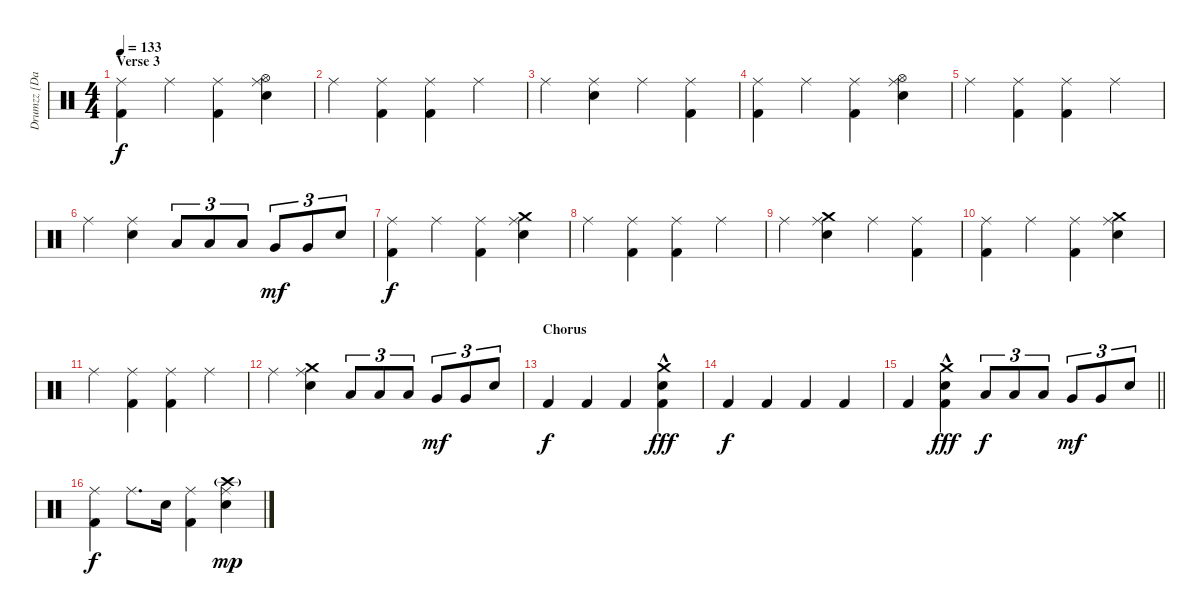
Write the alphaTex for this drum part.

\track ("Drumzz [Dave Grohl]" "Drumzz [Da") {instrument percussion}
\staff {score}
\articulation defaults
\ts (4 4)
\section ("" "Verse 3")
\tempo 133
\clef neutral
\ks c
("Ride (middle)" "Kick (hit) 2").4{dy f} "Ride (middle)".4 ("Ride (middle)" "Kick (hit) 2").4 ("Ride (middle)" "Hi-Hat (open)" "Snare (hit) 2").4 |
"Ride (middle)".4 ("Ride (middle)" "Kick (hit) 2").4 ("Ride (middle)" "Kick (hit) 2").4 "Ride (middle)".4 |
"Ride (middle)".4 ("Ride (middle)" "Snare (hit) 2").4 "Ride (middle)".4 ("Ride (middle)" "Kick (hit) 2").4 |
("Ride (middle)" "Kick (hit) 2").4 "Ride (middle)".4 ("Ride (middle)" "Kick (hit) 2").4 ("Ride (middle)" "Hi-Hat (open)" "Snare (hit) 2").4 |
"Ride (middle)".4 ("Ride (middle)" "Kick (hit) 2").4 ("Ride (middle)" "Kick (hit) 2").4 "Ride (middle)".4 |
"Ride (middle)".4 ("Ride (middle)" "Snare (hit) 2").4 "Low Tom (hit)".8{tu (3 2)} "Low Tom (hit)".8{tu (3 2)} "Low Tom (hit)".8{tu (3 2)} "Very Low Tom (hit)".8{tu (3 2) dy mf} "Very Low Tom (hit)".8{tu (3 2)} "Snare (hit) 2".8{tu (3 2)} |
("Ride (middle)" "Kick (hit) 2").4{dy f} "Ride (middle)".4 ("Ride (middle)" "Kick (hit) 2").4 ("Ride (middle)" "Crash medium (hit)" "Snare (hit) 2").4 |
"Ride (middle)".4 ("Ride (middle)" "Kick (hit) 2").4 ("Ride (middle)" "Kick (hit) 2").4 "Ride (middle)".4 |
"Ride (middle)".4 ("Ride (middle)" "Crash medium (hit)" "Snare (hit) 2").4 "Ride (middle)".4 ("Ride (middle)" "Kick (hit) 2").4 |
("Ride (middle)" "Kick (hit) 2").4 "Ride (middle)".4 ("Ride (middle)" "Kick (hit) 2").4 ("Ride (middle)" "Crash medium (hit)" "Snare (hit) 2").4 |
"Ride (middle)".4 ("Ride (middle)" "Kick (hit) 2").4 ("Ride (middle)" "Kick (hit) 2").4 "Ride (middle)".4 |
"Ride (middle)".4 ("Ride (middle)" "Crash medium (hit)" "Snare (hit) 2").4 "Low Tom (hit)".8{tu (3 2)} "Low Tom (hit)".8{tu (3 2)} "Low Tom (hit)".8{tu (3 2)} "Very Low Tom (hit)".8{tu (3 2) dy mf} "Very Low Tom (hit)".8{tu (3 2)} "Snare (hit) 2".8{tu (3 2)} |
\section ("" "Chorus")
"Kick (hit) 2".4{dy f} "Kick (hit) 2".4 "Kick (hit) 2".4 ("Crash medium (hit)" "Snare (hit) 2"{hac} "Kick (hit) 2").4{dy fff} |
"Kick (hit) 2".4{dy f} "Kick (hit) 2".4 "Kick (hit) 2".4 "Kick (hit) 2".4 |
\barLineRight lightlight "Kick (hit) 2".4
("Crash medium (hit)" "Snare (hit) 2"{hac} "Kick (hit) 2").4{dy fff} "Low Tom (hit)".8{tu (3 2) dy f} "Low Tom (hit)".8{tu (3 2)} "Low Tom (hit)".8{tu (3 2)} "Very Low Tom (hit)".8{tu (3 2) dy mf} "Very Low Tom (hit)".8{tu (3 2)} "Snare (hit) 2".8{tu (3 2)} |
("Ride (middle)" "Kick (hit) 2").4{dy f} "Ride (middle)".8{d} "Snare (hit) 2".16 ("Ride (middle)" "Kick (hit) 2").4 ("Ride (middle)" "Snare (hit) 2" "Crash high (hit)"{g}).4{dy mp}
